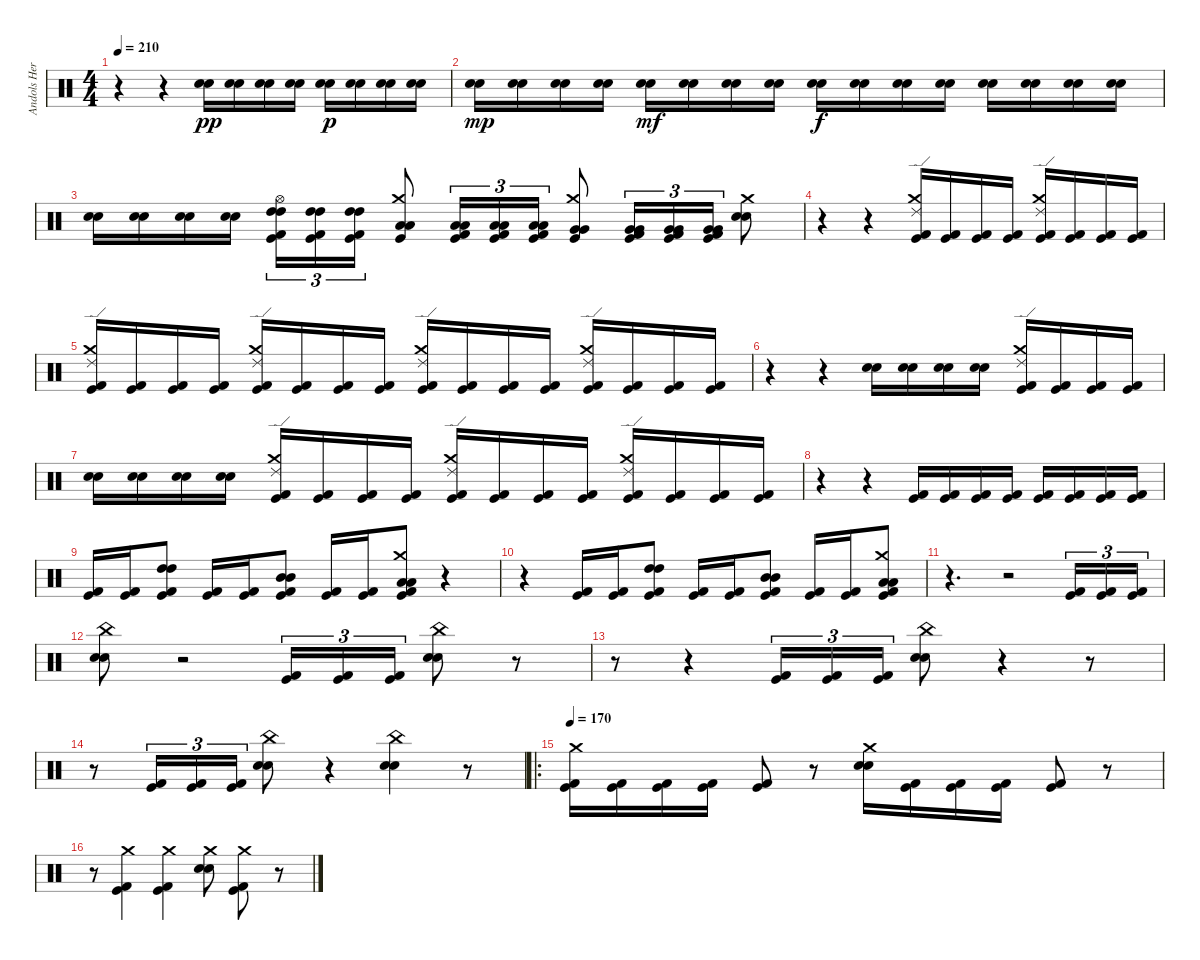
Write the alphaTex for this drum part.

\track ("Andols Herrick" "Andols Her") {instrument percussion}
\staff {score}
\articulation defaults
\ts (4 4)
\tempo 210
\clef neutral
\ks c
r.4{dy f} r.4 ("Snare (hit) 2" "Electric Snare (hit)").16{dy pp} ("Snare (hit) 2" "Electric Snare (hit)").16 ("Snare (hit) 2" "Electric Snare (hit)").16 ("Snare (hit) 2" "Electric Snare (hit)").16 ("Snare (hit) 2" "Electric Snare (hit)").16{dy p} ("Snare (hit) 2" "Electric Snare (hit)").16 ("Snare (hit) 2" "Electric Snare (hit)").16 ("Snare (hit) 2" "Electric Snare (hit)").16 |
("Snare (hit) 2" "Electric Snare (hit)").16{dy mp} ("Snare (hit) 2" "Electric Snare (hit)").16 ("Snare (hit) 2" "Electric Snare (hit)").16 ("Snare (hit) 2" "Electric Snare (hit)").16 ("Snare (hit) 2" "Electric Snare (hit)").16{dy mf} ("Snare (hit) 2" "Electric Snare (hit)").16 ("Snare (hit) 2" "Electric Snare (hit)").16 ("Snare (hit) 2" "Electric Snare (hit)").16 ("Snare (hit) 2" "Electric Snare (hit)").16{dy f} ("Snare (hit) 2" "Electric Snare (hit)").16 ("Snare (hit) 2" "Electric Snare (hit)").16 ("Snare (hit) 2" "Electric Snare (hit)").16 ("Snare (hit) 2" "Electric Snare (hit)").16 ("Snare (hit) 2" "Electric Snare (hit)").16 ("Snare (hit) 2" "Electric Snare (hit)").16 ("Snare (hit) 2" "Electric Snare (hit)").16 |
("Snare (hit) 2" "Electric Snare (hit)").16 ("Snare (hit) 2" "Electric Snare (hit)").16 ("Snare (hit) 2" "Electric Snare (hit)").16 ("Snare (hit) 2" "Electric Snare (hit)").16 ("Hi-Hat (open)" "High Tom (hit)" "High Tom (hit)" "Kick (hit) 2" "Kick (hit)").16{tu (3 2)} ("High Tom (hit)" "High Tom (hit)" "Kick (hit) 2" "Kick (hit)").16{tu (3 2)} ("High Tom (hit)" "High Tom (hit)" "Kick (hit) 2" "Kick (hit)").16{tu (3 2)} ("Crash medium (hit)" "Low Tom (hit)" "Low Tom (hit)" "Kick (hit)").8 ("Low Tom (hit)" "Low Tom (hit)" "Kick (hit) 2" "Kick (hit)").16{tu (3 2)} ("Low Tom (hit)" "Low Tom (hit)" "Kick (hit) 2" "Kick (hit)").16{tu (3 2)} ("Low Tom (hit)" "Low Tom (hit)" "Kick (hit) 2" "Kick (hit)").16{tu (3 2)} ("Crash medium (hit)" "Very Low Tom (hit)" "Very Low Tom (hit)" "Kick (hit)").8 ("Very Low Tom (hit)" "Very Low Tom (hit)" "Kick (hit) 2" "Kick (hit)").16{tu (3 2)} ("Very Low Tom (hit)" "Very Low Tom (hit)" "Kick (hit) 2" "Kick (hit)").16{tu (3 2)} ("Very Low Tom (hit)" "Very Low Tom (hit)" "Kick (hit) 2" "Kick (hit)").16{tu (3 2)} ("Crash medium (hit)" "Snare (hit) 2" "Electric Snare (hit)").8 |
r.4 r.4 ("Crash medium (hit)" "Ride (edge) 2" "Kick (hit) 2" "Kick (hit)").16 ("Kick (hit) 2" "Kick (hit)").16 ("Kick (hit) 2" "Kick (hit)").16 ("Kick (hit) 2" "Kick (hit)").16 ("Crash medium (hit)" "Ride (edge) 2" "Kick (hit) 2" "Kick (hit)").16 ("Kick (hit) 2" "Kick (hit)").16 ("Kick (hit) 2" "Kick (hit)").16 ("Kick (hit) 2" "Kick (hit)").16 |
("Crash medium (hit)" "Ride (edge) 2" "Kick (hit) 2" "Kick (hit)").16 ("Kick (hit) 2" "Kick (hit)").16 ("Kick (hit) 2" "Kick (hit)").16 ("Kick (hit) 2" "Kick (hit)").16 ("Crash medium (hit)" "Ride (edge) 2" "Kick (hit) 2" "Kick (hit)").16 ("Kick (hit) 2" "Kick (hit)").16 ("Kick (hit) 2" "Kick (hit)").16 ("Kick (hit) 2" "Kick (hit)").16 ("Crash medium (hit)" "Ride (edge) 2" "Kick (hit) 2" "Kick (hit)").16 ("Kick (hit) 2" "Kick (hit)").16 ("Kick (hit) 2" "Kick (hit)").16 ("Kick (hit) 2" "Kick (hit)").16 ("Crash medium (hit)" "Ride (edge) 2" "Kick (hit) 2" "Kick (hit)").16 ("Kick (hit) 2" "Kick (hit)").16 ("Kick (hit) 2" "Kick (hit)").16 ("Kick (hit) 2" "Kick (hit)").16 |
r.4 r.4 ("Electric Snare (hit)" "Snare (hit) 2").16 ("Electric Snare (hit)" "Snare (hit) 2").16 ("Electric Snare (hit)" "Snare (hit) 2").16 ("Electric Snare (hit)" "Snare (hit) 2").16 ("Crash medium (hit)" "Ride (edge) 2" "Kick (hit) 2" "Kick (hit)").16 ("Kick (hit) 2" "Kick (hit)").16 ("Kick (hit) 2" "Kick (hit)").16 ("Kick (hit) 2" "Kick (hit)").16 |
("Electric Snare (hit)" "Snare (hit) 2").16 ("Electric Snare (hit)" "Snare (hit) 2").16 ("Electric Snare (hit)" "Snare (hit) 2").16 ("Electric Snare (hit)" "Snare (hit) 2").16 ("Crash medium (hit)" "Ride (edge) 2" "Kick (hit) 2" "Kick (hit)").16 ("Kick (hit) 2" "Kick (hit)").16 ("Kick (hit) 2" "Kick (hit)").16 ("Kick (hit) 2" "Kick (hit)").16 ("Crash medium (hit)" "Ride (edge) 2" "Kick (hit) 2" "Kick (hit)").16 ("Kick (hit) 2" "Kick (hit)").16 ("Kick (hit) 2" "Kick (hit)").16 ("Kick (hit) 2" "Kick (hit)").16 ("Crash medium (hit)" "Ride (edge) 2" "Kick (hit) 2" "Kick (hit)").16 ("Kick (hit) 2" "Kick (hit)").16 ("Kick (hit) 2" "Kick (hit)").16 ("Kick (hit) 2" "Kick (hit)").16 |
r.4 r.4 ("Kick (hit) 2" "Kick (hit)").16 ("Kick (hit) 2" "Kick (hit)").16 ("Kick (hit) 2" "Kick (hit)").16 ("Kick (hit) 2" "Kick (hit)").16 ("Kick (hit) 2" "Kick (hit)").16 ("Kick (hit) 2" "Kick (hit)").16 ("Kick (hit) 2" "Kick (hit)").16 ("Kick (hit) 2" "Kick (hit)").16 |
("Kick (hit) 2" "Kick (hit)").16 ("Kick (hit) 2" "Kick (hit)").16 ("High Tom (hit)" "High Tom (hit)" "Kick (hit) 2" "Kick (hit)").8 ("Kick (hit) 2" "Kick (hit)").16 ("Kick (hit) 2" "Kick (hit)").16 ("Mid Tom (hit)" "Mid Tom (hit)" "Kick (hit) 2" "Kick (hit)").8 ("Kick (hit) 2" "Kick (hit)").16 ("Kick (hit) 2" "Kick (hit)").16 ("Crash medium (hit)" "Low Tom (hit)" "Low Tom (hit)" "Kick (hit) 2" "Kick (hit)").8 r.4 |
r.4 ("Kick (hit) 2" "Kick (hit)").16 ("Kick (hit) 2" "Kick (hit)").16 ("High Tom (hit)" "High Tom (hit)" "Kick (hit) 2" "Kick (hit)").8 ("Kick (hit) 2" "Kick (hit)").16 ("Kick (hit) 2" "Kick (hit)").16 ("Mid Tom (hit)" "Mid Tom (hit)" "Kick (hit) 2" "Kick (hit)").8 ("Kick (hit) 2" "Kick (hit)").16 ("Kick (hit) 2" "Kick (hit)").16 ("Crash medium (hit)" "Low Tom (hit)" "Low Tom (hit)" "Kick (hit) 2" "Kick (hit)").8 |
r.4{d} r.2 ("Kick (hit) 2" "Kick (hit)").16{tu (3 2)} ("Kick (hit) 2" "Kick (hit)").16{tu (3 2)} ("Kick (hit) 2" "Kick (hit)").16{tu (3 2)} |
("China (hit)" "Snare (hit) 2" "Electric Snare (hit)").8 r.2 ("Kick (hit) 2" "Kick (hit)").16{tu (3 2)} ("Kick (hit) 2" "Kick (hit)").16{tu (3 2)} ("Kick (hit) 2" "Kick (hit)").16{tu (3 2)} ("China (hit)" "Snare (hit) 2" "Electric Snare (hit)").8 r.8 |
r.8 r.4 ("Kick (hit) 2" "Kick (hit)").16{tu (3 2)} ("Kick (hit) 2" "Kick (hit)").16{tu (3 2)} ("Kick (hit) 2" "Kick (hit)").16{tu (3 2)} ("China (hit)" "Snare (hit) 2" "Electric Snare (hit)").8 r.4 r.8 |
r.8 ("Kick (hit) 2" "Kick (hit)").16{tu (3 2)} ("Kick (hit) 2" "Kick (hit)").16{tu (3 2)} ("Kick (hit) 2" "Kick (hit)").16{tu (3 2)} ("China (hit)" "Snare (hit) 2" "Electric Snare (hit)").8 r.4 ("China (hit)" "Snare (hit) 2" "Electric Snare (hit)").4 r.8 |
\ro
\tempo 170
("Crash medium (hit)" "Kick (hit) 2" "Kick (hit)").16 ("Kick (hit) 2" "Kick (hit)").16 ("Kick (hit) 2" "Kick (hit)").16 ("Kick (hit) 2" "Kick (hit)").16 ("Kick (hit) 2" "Kick (hit)").8 r.8 ("Crash medium (hit)" "Electric Snare (hit)" "Snare (hit) 2").16 ("Kick (hit) 2" "Kick (hit)").16 ("Kick (hit) 2" "Kick (hit)").16 ("Kick (hit) 2" "Kick (hit)").16 ("Kick (hit) 2" "Kick (hit)").8 r.8 |
r.8 ("Crash medium (hit)" "Kick (hit) 2" "Kick (hit)").4 ("Crash medium (hit)" "Kick (hit) 2" "Kick (hit)").4 ("Crash medium (hit)" "Electric Snare (hit)" "Snare (hit) 2").8 ("Crash medium (hit)" "Kick (hit) 2" "Kick (hit)").8 r.8
